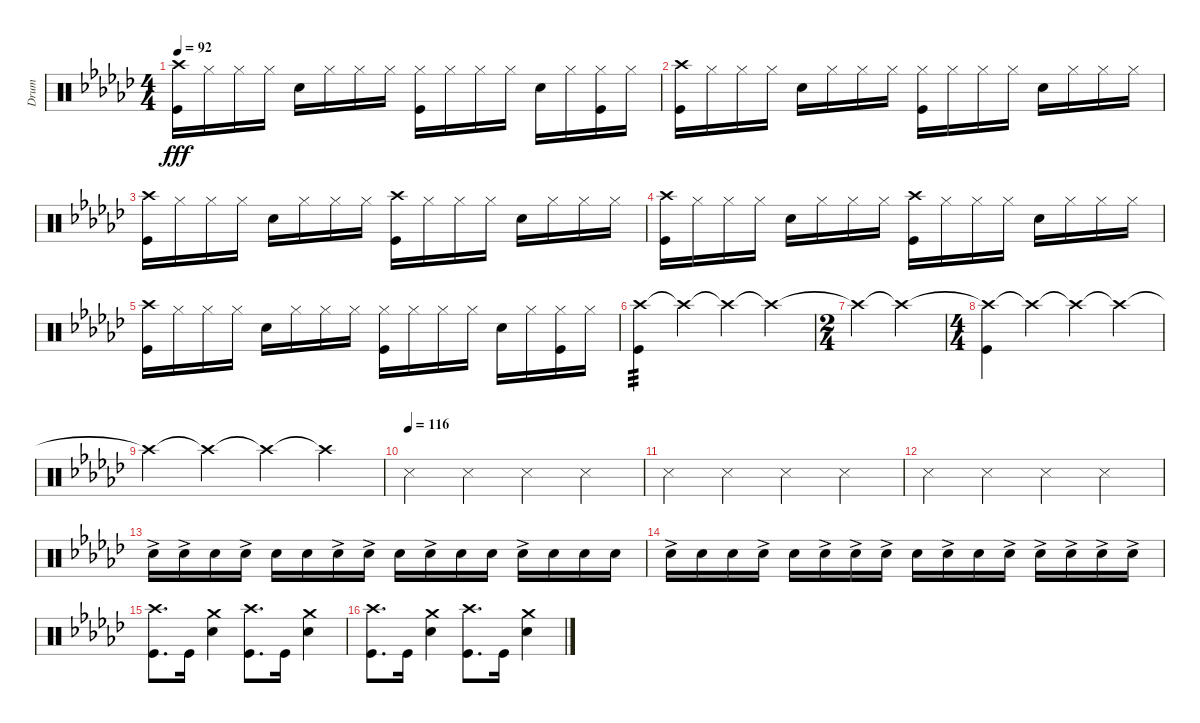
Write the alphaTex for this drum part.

\track ("Drum" "Drum") {instrument percussion}
\staff {score}
\articulation defaults
\ts (4 4)
\tempo 92
\clef neutral
\ks gb
("Crash high (hit)" "Kick (hit)").16{dy fff} "Hi-Hat (closed)".16 "Hi-Hat (closed)".16 "Hi-Hat (closed)".16 "Snare (hit) 2".16 "Hi-Hat (closed)".16 "Hi-Hat (closed)".16 "Hi-Hat (closed)".16 ("Hi-Hat (closed)" "Kick (hit)").16 "Hi-Hat (closed)".16 "Hi-Hat (closed)".16 "Hi-Hat (closed)".16 "Snare (hit) 2".16 "Hi-Hat (closed)".16 ("Hi-Hat (closed)" "Kick (hit)").16 "Hi-Hat (closed)".16 |
("Crash high (hit)" "Kick (hit)").16 "Hi-Hat (closed)".16 "Hi-Hat (closed)".16 "Hi-Hat (closed)".16 "Snare (hit) 2".16 "Hi-Hat (closed)".16 "Hi-Hat (closed)".16 "Hi-Hat (closed)".16 ("Hi-Hat (closed)" "Kick (hit)").16 "Hi-Hat (closed)".16 "Hi-Hat (closed)".16 "Hi-Hat (closed)".16 "Snare (hit) 2".16 "Hi-Hat (closed)".16 "Hi-Hat (closed)".16 "Hi-Hat (closed)".16 |
("Crash high (hit)" "Kick (hit)").16 "Hi-Hat (closed)".16 "Hi-Hat (closed)".16 "Hi-Hat (closed)".16 "Snare (hit) 2".16 "Hi-Hat (closed)".16 "Hi-Hat (closed)".16 "Hi-Hat (closed)".16 ("Crash high (hit)" "Kick (hit)").16 "Hi-Hat (closed)".16 "Hi-Hat (closed)".16 "Hi-Hat (closed)".16 "Snare (hit) 2".16 "Hi-Hat (closed)".16 "Hi-Hat (closed)".16 "Hi-Hat (closed)".16 |
("Crash high (hit)" "Kick (hit)").16 "Hi-Hat (closed)".16 "Hi-Hat (closed)".16 "Hi-Hat (closed)".16 "Snare (hit) 2".16 "Hi-Hat (closed)".16 "Hi-Hat (closed)".16 "Hi-Hat (closed)".16 ("Crash high (hit)" "Kick (hit)").16 "Hi-Hat (closed)".16 "Hi-Hat (closed)".16 "Hi-Hat (closed)".16 "Snare (hit) 2".16 "Hi-Hat (closed)".16 "Hi-Hat (closed)".16 "Hi-Hat (closed)".16 |
("Crash high (hit)" "Kick (hit)").16 "Hi-Hat (closed)".16 "Hi-Hat (closed)".16 "Hi-Hat (closed)".16 "Snare (hit) 2".16 "Hi-Hat (closed)".16 "Hi-Hat (closed)".16 "Hi-Hat (closed)".16 ("Hi-Hat (closed)" "Kick (hit)").16 "Hi-Hat (closed)".16 "Hi-Hat (closed)".16 "Hi-Hat (closed)".16 "Snare (hit) 2".16 "Hi-Hat (closed)".16 ("Hi-Hat (closed)" "Kick (hit)").16 "Hi-Hat (closed)".16 |
("Crash high (hit)" "Kick (hit)").4{tp 3} "Crash high (hit)"{t}.4 "Crash high (hit)"{t}.4 "Crash high (hit)"{t}.4 |
\ts (2 4)
"Crash high (hit)"{t}.4 "Crash high (hit)"{t}.4 |
\ts (4 4)
("Crash high (hit)"{t} "Kick (hit)").4 "Crash high (hit)"{t}.4 "Crash high (hit)"{t}.4 "Crash high (hit)"{t}.4 |
"Crash high (hit)"{t}.4 "Crash high (hit)"{t}.4 "Crash high (hit)"{t}.4 "Crash high (hit)"{t}.4 |
\tempo (116)
"Metronome (hit)".4 "Metronome (hit)".4 "Metronome (hit)".4 "Metronome (hit)".4 |
"Metronome (hit)".4 "Metronome (hit)".4 "Metronome (hit)".4 "Metronome (hit)".4 |
"Metronome (hit)".4 "Metronome (hit)".4 "Metronome (hit)".4 "Metronome (hit)".4 |
"Snare (hit) 2"{ac}.16 "Snare (hit) 2"{ac}.16 "Snare (hit) 2".16 "Snare (hit) 2"{ac}.16 "Snare (hit) 2".16 "Snare (hit) 2".16 "Snare (hit) 2"{ac}.16 "Snare (hit) 2"{ac}.16 "Snare (hit) 2".16 "Snare (hit) 2"{ac}.16 "Snare (hit) 2".16 "Snare (hit) 2".16 "Snare (hit) 2"{ac}.16 "Snare (hit) 2".16 "Snare (hit) 2".16 "Snare (hit) 2".16 |
"Snare (hit) 2"{ac}.16 "Snare (hit) 2".16 "Snare (hit) 2".16 "Snare (hit) 2"{ac}.16 "Snare (hit) 2".16 "Snare (hit) 2"{ac}.16 "Snare (hit) 2"{ac}.16 "Snare (hit) 2"{ac}.16 "Snare (hit) 2".16 "Snare (hit) 2"{ac}.16 "Snare (hit) 2".16 "Snare (hit) 2"{ac}.16 "Snare (hit) 2"{ac}.16 "Snare (hit) 2"{ac}.16 "Snare (hit) 2"{ac}.16 "Snare (hit) 2"{ac}.16 |
("Crash high (hit)" "Kick (hit)").8{d} "Kick (hit)".16 ("Crash medium (hit)" "Snare (hit) 2").4 ("Crash high (hit)" "Kick (hit)").8{d} "Kick (hit)".16 ("Crash medium (hit)" "Snare (hit) 2").4 |
("Crash high (hit)" "Kick (hit)").8{d} "Kick (hit)".16 ("Crash medium (hit)" "Snare (hit) 2").4 ("Crash high (hit)" "Kick (hit)").8{d} "Kick (hit)".16 ("Crash medium (hit)" "Snare (hit) 2").4
